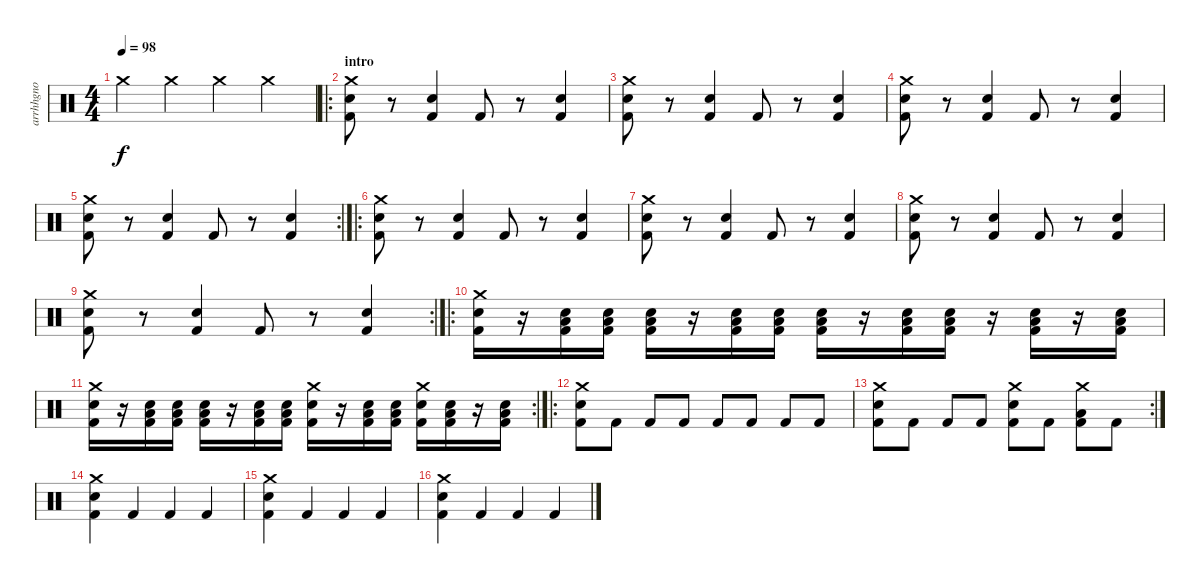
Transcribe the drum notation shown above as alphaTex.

\track ("arrhhgno" "arrhhgno") {instrument percussion}
\staff {score}
\articulation defaults
\ts (4 4)
\tempo 98
\clef neutral
\ks c "Crash medium (hit)".4{dy f} "Crash medium (hit)".4 "Crash medium (hit)".4 "Crash medium (hit)".4
|
\ro
\section ("" "intro")
("Crash medium (hit)" "Electric Snare (hit)" "Kick (hit) 2").8 r.8 ("Kick (hit) 2" "Electric Snare (hit)").4 "Kick (hit) 2".8 r.8 ("Kick (hit) 2" "Electric Snare (hit)").4 |
("Crash medium (hit)" "Electric Snare (hit)" "Kick (hit) 2").8 r.8 ("Kick (hit) 2" "Electric Snare (hit)").4 "Kick (hit) 2".8 r.8 ("Kick (hit) 2" "Electric Snare (hit)").4 |
("Crash medium (hit)" "Electric Snare (hit)" "Kick (hit) 2").8 r.8 ("Kick (hit) 2" "Electric Snare (hit)").4 "Kick (hit) 2".8 r.8 ("Kick (hit) 2" "Electric Snare (hit)").4 |
\rc 2
("Crash medium (hit)" "Electric Snare (hit)" "Kick (hit) 2").8 r.8 ("Kick (hit) 2" "Electric Snare (hit)").4 "Kick (hit) 2".8 r.8 ("Kick (hit) 2" "Electric Snare (hit)").4 |
\ro
("Crash medium (hit)" "Electric Snare (hit)" "Kick (hit) 2").8 r.8 ("Kick (hit) 2" "Electric Snare (hit)").4 "Kick (hit) 2".8 r.8 ("Kick (hit) 2" "Electric Snare (hit)").4 |
("Crash medium (hit)" "Electric Snare (hit)" "Kick (hit) 2").8 r.8 ("Kick (hit) 2" "Electric Snare (hit)").4 "Kick (hit) 2".8 r.8 ("Kick (hit) 2" "Electric Snare (hit)").4 |
("Crash medium (hit)" "Electric Snare (hit)" "Kick (hit) 2").8 r.8 ("Kick (hit) 2" "Electric Snare (hit)").4 "Kick (hit) 2".8 r.8 ("Kick (hit) 2" "Electric Snare (hit)").4 |
\rc 2
("Crash medium (hit)" "Electric Snare (hit)" "Kick (hit) 2").8 r.8 ("Kick (hit) 2" "Electric Snare (hit)").4 "Kick (hit) 2".8 r.8 ("Kick (hit) 2" "Electric Snare (hit)").4 |
\ro
("Kick (hit) 2" "Crash medium (hit)" "Electric Snare (hit)").16 r.16 ("Kick (hit) 2" "Low Tom (hit)" "Electric Snare (hit)").16 ("Kick (hit) 2" "Low Tom (hit)" "Electric Snare (hit)").16 ("Kick (hit) 2" "Low Tom (hit)" "Electric Snare (hit)").16 r.16 ("Electric Snare (hit)" "Low Tom (hit)" "Kick (hit) 2").16 ("Electric Snare (hit)" "Low Tom (hit)" "Kick (hit) 2").16 ("Electric Snare (hit)" "Kick (hit) 2" "Low Tom (hit)").16 r.16 ("Kick (hit) 2" "Electric Snare (hit)" "Low Tom (hit)").16 ("Kick (hit) 2" "Low Tom (hit)" "Electric Snare (hit)").16 r.16 ("Kick (hit) 2" "Low Tom (hit)" "Electric Snare (hit)").16 r.16 ("Kick (hit) 2" "Low Tom (hit)" "Electric Snare (hit)").16 |
\rc 2
("Electric Snare (hit)" "Crash medium (hit)" "Kick (hit) 2").16 r.16 ("Low Tom (hit)" "Electric Snare (hit)" "Kick (hit) 2").16 ("Electric Snare (hit)" "Low Tom (hit)" "Kick (hit) 2").16 ("Low Tom (hit)" "Electric Snare (hit)" "Kick (hit) 2").16 r.16 ("Electric Snare (hit)" "Low Tom (hit)" "Kick (hit) 2").16 ("Electric Snare (hit)" "Low Tom (hit)" "Kick (hit) 2").16 ("Electric Snare (hit)" "Crash medium (hit)" "Kick (hit) 2").16 r.16 ("Low Tom (hit)" "Kick (hit) 2" "Electric Snare (hit)").16 ("Low Tom (hit)" "Electric Snare (hit)" "Kick (hit) 2").16 ("Kick (hit) 2" "Electric Snare (hit)" "Crash medium (hit)").16 ("Low Tom (hit)" "Electric Snare (hit)" "Kick (hit) 2").16 r.16 ("Electric Snare (hit)" "Low Tom (hit)" "Kick (hit) 2").16 |
\ro
("Crash medium (hit)" "Kick (hit) 2" "Electric Snare (hit)").8 "Kick (hit) 2".8 "Kick (hit) 2".8 "Kick (hit) 2".8 "Kick (hit) 2".8 "Kick (hit) 2".8 "Kick (hit) 2".8 "Kick (hit) 2".8 |
\rc 2
("Crash medium (hit)" "Kick (hit) 2" "Electric Snare (hit)").8 "Kick (hit) 2".8 "Kick (hit) 2".8 "Kick (hit) 2".8 ("Crash medium (hit)" "Kick (hit) 2" "Electric Snare (hit)").8 "Kick (hit) 2".8 ("Crash medium (hit)" "Low Tom (hit)" "Kick (hit) 2").8 "Kick (hit) 2".8 |
("Crash medium (hit)" "Kick (hit) 2" "Electric Snare (hit)").4 "Kick (hit) 2".4 "Kick (hit) 2".4 "Kick (hit) 2".4 |
("Crash medium (hit)" "Kick (hit) 2" "Electric Snare (hit)").4 "Kick (hit) 2".4 "Kick (hit) 2".4 "Kick (hit) 2".4 |
("Crash medium (hit)" "Kick (hit) 2" "Electric Snare (hit)").4 "Kick (hit) 2".4 "Kick (hit) 2".4 "Kick (hit) 2".4
